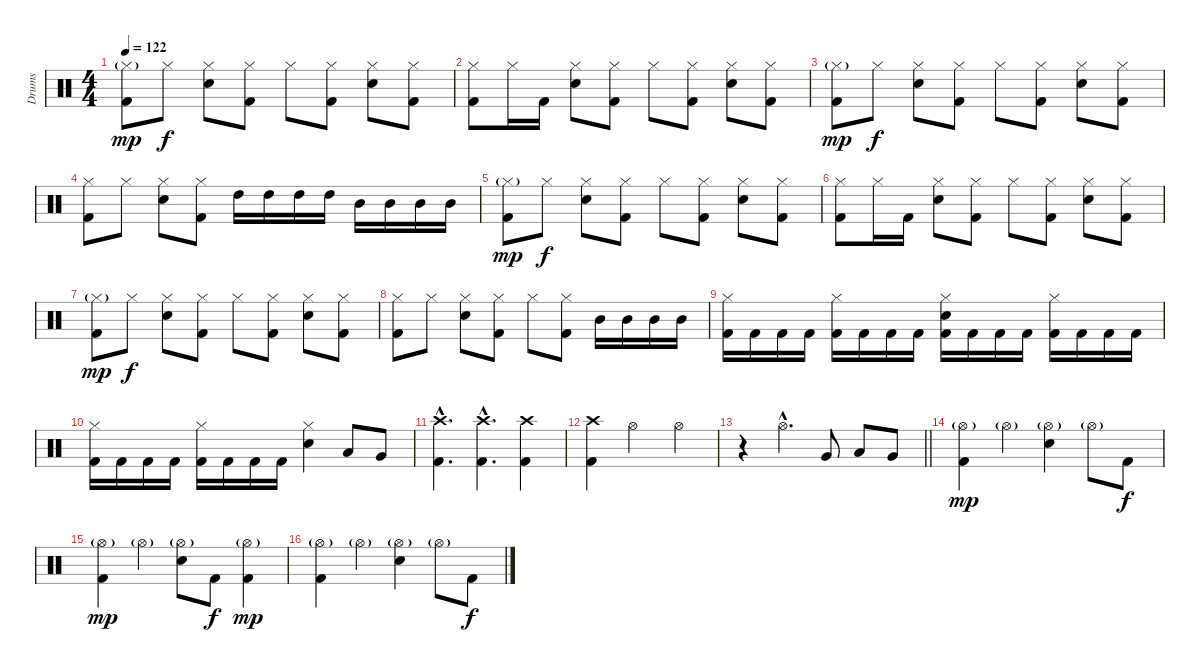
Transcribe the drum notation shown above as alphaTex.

\track ("Drums" "Drums") {instrument percussion}
\staff {score}
\articulation defaults
\ts (4 4)
\tempo 122
\clef neutral
\ks c
("Hi-Hat (closed)"{g} "Kick (hit) 2").8{dy mp} "Hi-Hat (closed)".8{dy f} ("Hi-Hat (closed)" "Electric Snare (hit)").8 ("Hi-Hat (closed)" "Kick (hit) 2").8 "Hi-Hat (closed)".8 ("Hi-Hat (closed)" "Kick (hit) 2").8 ("Hi-Hat (closed)" "Electric Snare (hit)").8 ("Hi-Hat (closed)" "Kick (hit) 2").8 |
("Hi-Hat (closed)" "Kick (hit) 2").8 "Hi-Hat (closed)".16 "Kick (hit) 2".16 ("Hi-Hat (closed)" "Electric Snare (hit)").8 ("Hi-Hat (closed)" "Kick (hit) 2").8 "Hi-Hat (closed)".8 ("Hi-Hat (closed)" "Kick (hit) 2").8 ("Hi-Hat (closed)" "Electric Snare (hit)").8 ("Hi-Hat (closed)" "Kick (hit) 2").8 |
("Hi-Hat (closed)"{g} "Kick (hit) 2").8{dy mp} "Hi-Hat (closed)".8{dy f} ("Hi-Hat (closed)" "Electric Snare (hit)").8 ("Hi-Hat (closed)" "Kick (hit) 2").8 "Hi-Hat (closed)".8 ("Hi-Hat (closed)" "Kick (hit) 2").8 ("Hi-Hat (closed)" "Electric Snare (hit)").8 ("Hi-Hat (closed)" "Kick (hit) 2").8 |
("Hi-Hat (closed)" "Kick (hit) 2").8 "Hi-Hat (closed)".8 ("Hi-Hat (closed)" "Electric Snare (hit)").8 ("Hi-Hat (closed)" "Kick (hit) 2").8 "High Tom (hit)".16 "High Tom (hit)".16 "High Tom (hit)".16 "High Tom (hit)".16 "Mid Tom (hit)".16 "Mid Tom (hit)".16 "Mid Tom (hit)".16 "Mid Tom (hit)".16 |
("Hi-Hat (closed)"{g} "Kick (hit) 2").8{dy mp} "Hi-Hat (closed)".8{dy f} ("Hi-Hat (closed)" "Electric Snare (hit)").8 ("Hi-Hat (closed)" "Kick (hit) 2").8 "Hi-Hat (closed)".8 ("Hi-Hat (closed)" "Kick (hit) 2").8 ("Hi-Hat (closed)" "Electric Snare (hit)").8 ("Hi-Hat (closed)" "Kick (hit) 2").8 |
("Hi-Hat (closed)" "Kick (hit) 2").8 "Hi-Hat (closed)".16 "Kick (hit) 2".16 ("Hi-Hat (closed)" "Electric Snare (hit)").8 ("Hi-Hat (closed)" "Kick (hit) 2").8 "Hi-Hat (closed)".8 ("Hi-Hat (closed)" "Kick (hit) 2").8 ("Hi-Hat (closed)" "Electric Snare (hit)").8 ("Hi-Hat (closed)" "Kick (hit) 2").8 |
("Hi-Hat (closed)"{g} "Kick (hit) 2").8{dy mp} "Hi-Hat (closed)".8{dy f} ("Hi-Hat (closed)" "Electric Snare (hit)").8 ("Hi-Hat (closed)" "Kick (hit) 2").8 "Hi-Hat (closed)".8 ("Hi-Hat (closed)" "Kick (hit) 2").8 ("Hi-Hat (closed)" "Electric Snare (hit)").8 ("Hi-Hat (closed)" "Kick (hit) 2").8 |
("Hi-Hat (closed)" "Kick (hit) 2").8 "Hi-Hat (closed)".8 ("Hi-Hat (closed)" "Electric Snare (hit)").8 ("Hi-Hat (closed)" "Kick (hit) 2").8 "Hi-Hat (closed)".8 ("Hi-Hat (closed)" "Kick (hit) 2").8 "Mid Tom (hit)".16 "Mid Tom (hit)".16 "Mid Tom (hit)".16 "Mid Tom (hit)".16 |
("Hi-Hat (closed)" "Kick (hit) 2").16 "Kick (hit) 2".16 "Kick (hit) 2".16 "Kick (hit) 2".16 ("Hi-Hat (closed)" "Kick (hit) 2").16 "Kick (hit) 2".16 "Kick (hit) 2".16 "Kick (hit) 2".16 ("Hi-Hat (closed)" "Electric Snare (hit)" "Kick (hit) 2").16 "Kick (hit) 2".16 "Kick (hit) 2".16 "Kick (hit) 2".16 ("Hi-Hat (closed)" "Kick (hit) 2").16 "Kick (hit) 2".16 "Kick (hit) 2".16 "Kick (hit) 2".16 |
("Hi-Hat (closed)" "Kick (hit) 2").16 "Kick (hit) 2".16 "Kick (hit) 2".16 "Kick (hit) 2".16 ("Hi-Hat (closed)" "Kick (hit) 2").16 "Kick (hit) 2".16 "Kick (hit) 2".16 "Kick (hit) 2".16 ("Hi-Hat (closed)" "Electric Snare (hit)").4 "Low Tom (hit)".8 "Very Low Tom (hit)".8 |
("Crash high (hit)"{hac} "Kick (hit) 2"{hac}).4{d} ("Crash high (hit)"{hac} "Kick (hit) 2"{hac}).4{d} ("Crash high (hit)" "Kick (hit) 2").4 |
("Crash high (hit)" "Kick (hit) 2").4 "Hi-Hat (open)".2 "Hi-Hat (open)".4 |
\barLineRight lightlight
r.4 "Hi-Hat (open)"{hac}.4{d} "Very Low Tom (hit)".8 "Low Tom (hit)".8 "Very Low Tom (hit)".8 |
("Hi-Hat (open)"{g} "Kick (hit) 2").4{dy mp} "Hi-Hat (open)"{g}.4 ("Hi-Hat (open)"{g} "Electric Snare (hit)").4 "Hi-Hat (open)"{g}.8 "Kick (hit) 2".8{dy f} |
("Hi-Hat (open)"{g} "Kick (hit) 2").4{dy mp} "Hi-Hat (open)"{g}.4 ("Hi-Hat (open)"{g} "Electric Snare (hit)").8 "Kick (hit) 2".8{dy f} ("Hi-Hat (open)"{g} "Kick (hit) 2").4{dy mp} |
("Hi-Hat (open)"{g} "Kick (hit) 2").4 "Hi-Hat (open)"{g}.4 ("Hi-Hat (open)"{g} "Electric Snare (hit)").4 "Hi-Hat (open)"{g}.8 "Kick (hit) 2".8{dy f}
